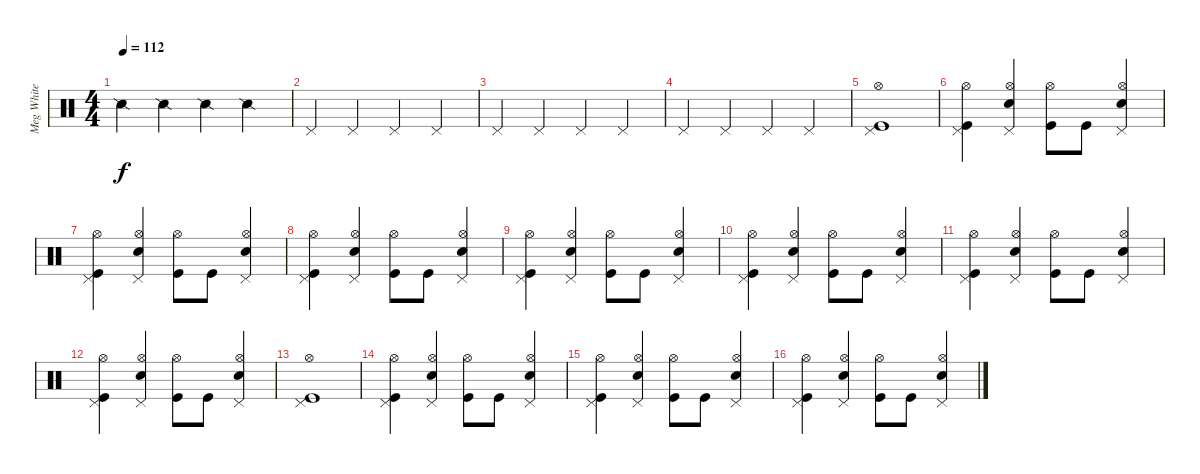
\track ("Meg White" "Meg White") {instrument percussion}
\staff {score}
\articulation defaults
\ts (4 4)
\tempo 112
\clef neutral
\ks c "Snare (side stick) 2".4{dy f} "Snare (side stick) 2".4 "Snare (side stick) 2".4 "Snare (side stick) 2".4
|
"Pedal Hi-Hat (hit)".4 "Pedal Hi-Hat (hit)".4 "Pedal Hi-Hat (hit)".4 "Pedal Hi-Hat (hit)".4 |
"Pedal Hi-Hat (hit)".4 "Pedal Hi-Hat (hit)".4 "Pedal Hi-Hat (hit)".4 "Pedal Hi-Hat (hit)".4 |
"Pedal Hi-Hat (hit)".4 "Pedal Hi-Hat (hit)".4 "Pedal Hi-Hat (hit)".4 "Pedal Hi-Hat (hit)".4 |
("Kick (hit)" "Pedal Hi-Hat (hit)" "Hi-Hat (open)").1 |
("Kick (hit)" "Pedal Hi-Hat (hit)" "Hi-Hat (open)").4 ("Snare (hit) 2" "Pedal Hi-Hat (hit)" "Hi-Hat (open)").4 ("Kick (hit)" "Hi-Hat (open)").8 "Kick (hit)".8 ("Snare (hit) 2" "Pedal Hi-Hat (hit)" "Hi-Hat (open)").4 |
("Kick (hit)" "Pedal Hi-Hat (hit)" "Hi-Hat (open)").4 ("Snare (hit) 2" "Pedal Hi-Hat (hit)" "Hi-Hat (open)").4 ("Kick (hit)" "Hi-Hat (open)").8 "Kick (hit)".8 ("Snare (hit) 2" "Pedal Hi-Hat (hit)" "Hi-Hat (open)").4 |
("Kick (hit)" "Pedal Hi-Hat (hit)" "Hi-Hat (open)").4 ("Snare (hit) 2" "Pedal Hi-Hat (hit)" "Hi-Hat (open)").4 ("Kick (hit)" "Hi-Hat (open)").8 "Kick (hit)".8 ("Snare (hit) 2" "Pedal Hi-Hat (hit)" "Hi-Hat (open)").4 |
("Kick (hit)" "Pedal Hi-Hat (hit)" "Hi-Hat (open)").4 ("Snare (hit) 2" "Pedal Hi-Hat (hit)" "Hi-Hat (open)").4 ("Kick (hit)" "Hi-Hat (open)").8 "Kick (hit)".8 ("Snare (hit) 2" "Pedal Hi-Hat (hit)" "Hi-Hat (open)").4 |
("Kick (hit)" "Pedal Hi-Hat (hit)" "Hi-Hat (open)").4 ("Snare (hit) 2" "Pedal Hi-Hat (hit)" "Hi-Hat (open)").4 ("Kick (hit)" "Hi-Hat (open)").8 "Kick (hit)".8 ("Snare (hit) 2" "Pedal Hi-Hat (hit)" "Hi-Hat (open)").4 |
("Kick (hit)" "Pedal Hi-Hat (hit)" "Hi-Hat (open)").4 ("Snare (hit) 2" "Pedal Hi-Hat (hit)" "Hi-Hat (open)").4 ("Kick (hit)" "Hi-Hat (open)").8 "Kick (hit)".8 ("Snare (hit) 2" "Pedal Hi-Hat (hit)" "Hi-Hat (open)").4 |
("Kick (hit)" "Pedal Hi-Hat (hit)" "Hi-Hat (open)").4 ("Snare (hit) 2" "Pedal Hi-Hat (hit)" "Hi-Hat (open)").4 ("Kick (hit)" "Hi-Hat (open)").8 "Kick (hit)".8 ("Snare (hit) 2" "Pedal Hi-Hat (hit)" "Hi-Hat (open)").4 |
("Kick (hit)" "Pedal Hi-Hat (hit)" "Hi-Hat (open)").1 |
("Kick (hit)" "Pedal Hi-Hat (hit)" "Hi-Hat (open)").4 ("Snare (hit) 2" "Pedal Hi-Hat (hit)" "Hi-Hat (open)").4 ("Kick (hit)" "Hi-Hat (open)").8 "Kick (hit)".8 ("Snare (hit) 2" "Pedal Hi-Hat (hit)" "Hi-Hat (open)").4 |
("Kick (hit)" "Pedal Hi-Hat (hit)" "Hi-Hat (open)").4 ("Snare (hit) 2" "Pedal Hi-Hat (hit)" "Hi-Hat (open)").4 ("Kick (hit)" "Hi-Hat (open)").8 "Kick (hit)".8 ("Snare (hit) 2" "Pedal Hi-Hat (hit)" "Hi-Hat (open)").4 |
("Kick (hit)" "Pedal Hi-Hat (hit)" "Hi-Hat (open)").4 ("Snare (hit) 2" "Pedal Hi-Hat (hit)" "Hi-Hat (open)").4 ("Kick (hit)" "Hi-Hat (open)").8 "Kick (hit)".8 ("Snare (hit) 2" "Pedal Hi-Hat (hit)" "Hi-Hat (open)").4
